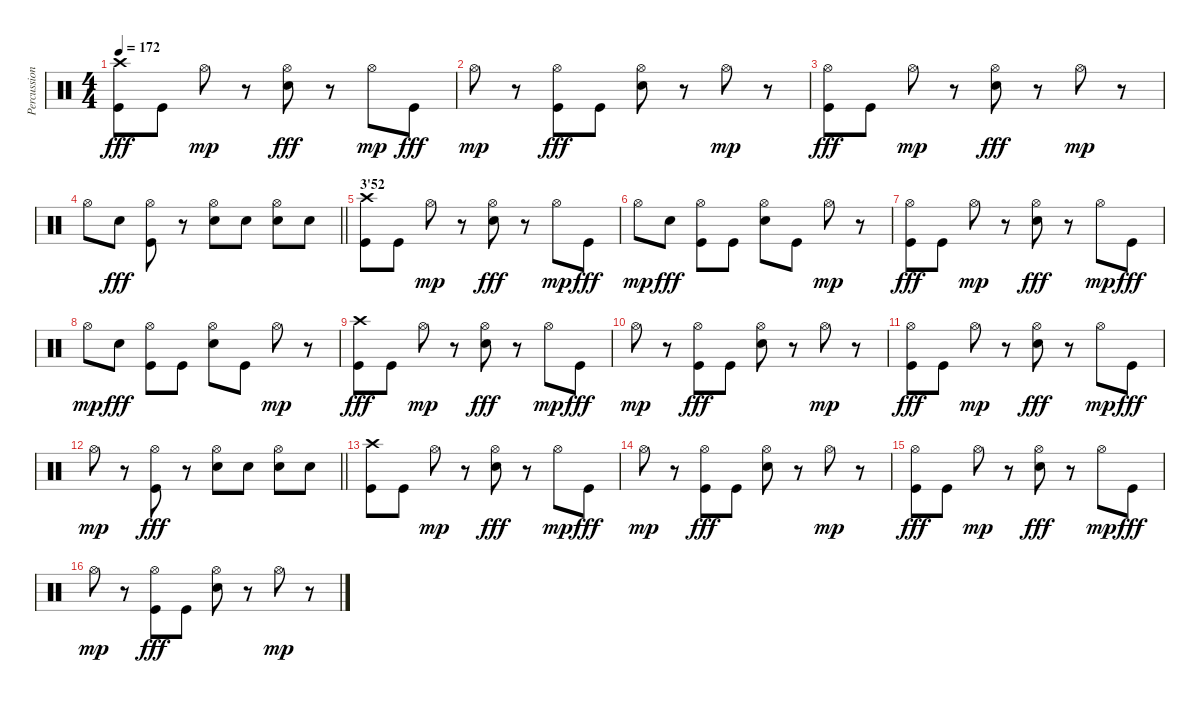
\track ("Percussions" "Percussion") {instrument percussion}
\staff {score}
\articulation defaults
\ts (4 4)
\tempo 172
\clef neutral
\ks c
("Crash high (hit)" "Kick (hit)").8{dy fff} "Kick (hit)".8 "Hi-Hat (open)".8{dy mp} r.8 ("Hi-Hat (open)" "Snare (hit) 2").8{dy fff} r.8 "Hi-Hat (open)".8{dy mp} "Kick (hit)".8{dy fff} |
"Hi-Hat (open)".8{dy mp} r.8 ("Hi-Hat (open)" "Kick (hit)").8{dy fff} "Kick (hit)".8 ("Hi-Hat (open)" "Snare (hit) 2").8 r.8 "Hi-Hat (open)".8{dy mp} r.8 |
("Hi-Hat (open)" "Kick (hit)").8{dy fff} "Kick (hit)".8 "Hi-Hat (open)".8{dy mp} r.8 ("Hi-Hat (open)" "Snare (hit) 2").8{dy fff} r.8 "Hi-Hat (open)".8{dy mp} r.8 |
\barLineRight lightlight "Hi-Hat (open)".8 "Snare (hit) 2".8{dy fff}
("Hi-Hat (open)" "Kick (hit)").8 r.8 ("Hi-Hat (open)" "Snare (hit) 2").8 "Snare (hit) 2".8 ("Hi-Hat (open)" "Snare (hit) 2").8 "Snare (hit) 2".8 |
\section ("" "3'52")
("Crash high (hit)" "Kick (hit)").8 "Kick (hit)".8 "Hi-Hat (open)".8{dy mp} r.8 ("Hi-Hat (open)" "Snare (hit) 2").8{dy fff} r.8 "Hi-Hat (open)".8{dy mp} "Kick (hit)".8{dy fff} |
"Hi-Hat (open)".8{dy mp} "Snare (hit) 2".8{dy fff} ("Hi-Hat (open)" "Kick (hit)").8 "Kick (hit)".8 ("Hi-Hat (open)" "Snare (hit) 2").8 "Kick (hit)".8 "Hi-Hat (open)".8{dy mp} r.8 |
("Hi-Hat (open)" "Kick (hit)").8{dy fff} "Kick (hit)".8 "Hi-Hat (open)".8{dy mp} r.8 ("Hi-Hat (open)" "Snare (hit) 2").8{dy fff} r.8 "Hi-Hat (open)".8{dy mp} "Kick (hit)".8{dy fff} |
"Hi-Hat (open)".8{dy mp} "Snare (hit) 2".8{dy fff} ("Hi-Hat (open)" "Kick (hit)").8 "Kick (hit)".8 ("Hi-Hat (open)" "Snare (hit) 2").8 "Kick (hit)".8 "Hi-Hat (open)".8{dy mp} r.8 |
("Crash high (hit)" "Kick (hit)").8{dy fff} "Kick (hit)".8 "Hi-Hat (open)".8{dy mp} r.8 ("Hi-Hat (open)" "Snare (hit) 2").8{dy fff} r.8 "Hi-Hat (open)".8{dy mp} "Kick (hit)".8{dy fff} |
"Hi-Hat (open)".8{dy mp} r.8 ("Hi-Hat (open)" "Kick (hit)").8{dy fff} "Kick (hit)".8 ("Hi-Hat (open)" "Snare (hit) 2").8 r.8 "Hi-Hat (open)".8{dy mp} r.8 |
("Hi-Hat (open)" "Kick (hit)").8{dy fff} "Kick (hit)".8 "Hi-Hat (open)".8{dy mp} r.8 ("Hi-Hat (open)" "Snare (hit) 2").8{dy fff} r.8 "Hi-Hat (open)".8{dy mp} "Kick (hit)".8{dy fff} |
\barLineRight lightlight "Hi-Hat (open)".8{dy mp}
r.8 ("Hi-Hat (open)" "Kick (hit)").8{dy fff} r.8 ("Hi-Hat (open)" "Snare (hit) 2").8 "Snare (hit) 2".8 ("Hi-Hat (open)" "Snare (hit) 2").8 "Snare (hit) 2".8 |
("Crash high (hit)" "Kick (hit)").8 "Kick (hit)".8 "Hi-Hat (open)".8{dy mp} r.8 ("Hi-Hat (open)" "Snare (hit) 2").8{dy fff} r.8 "Hi-Hat (open)".8{dy mp} "Kick (hit)".8{dy fff} |
"Hi-Hat (open)".8{dy mp} r.8 ("Hi-Hat (open)" "Kick (hit)").8{dy fff} "Kick (hit)".8 ("Hi-Hat (open)" "Snare (hit) 2").8 r.8 "Hi-Hat (open)".8{dy mp} r.8 |
("Hi-Hat (open)" "Kick (hit)").8{dy fff} "Kick (hit)".8 "Hi-Hat (open)".8{dy mp} r.8 ("Hi-Hat (open)" "Snare (hit) 2").8{dy fff} r.8 "Hi-Hat (open)".8{dy mp} "Kick (hit)".8{dy fff} |
"Hi-Hat (open)".8{dy mp} r.8 ("Hi-Hat (open)" "Kick (hit)").8{dy fff} "Kick (hit)".8 ("Hi-Hat (open)" "Snare (hit) 2").8 r.8 "Hi-Hat (open)".8{dy mp} r.8
